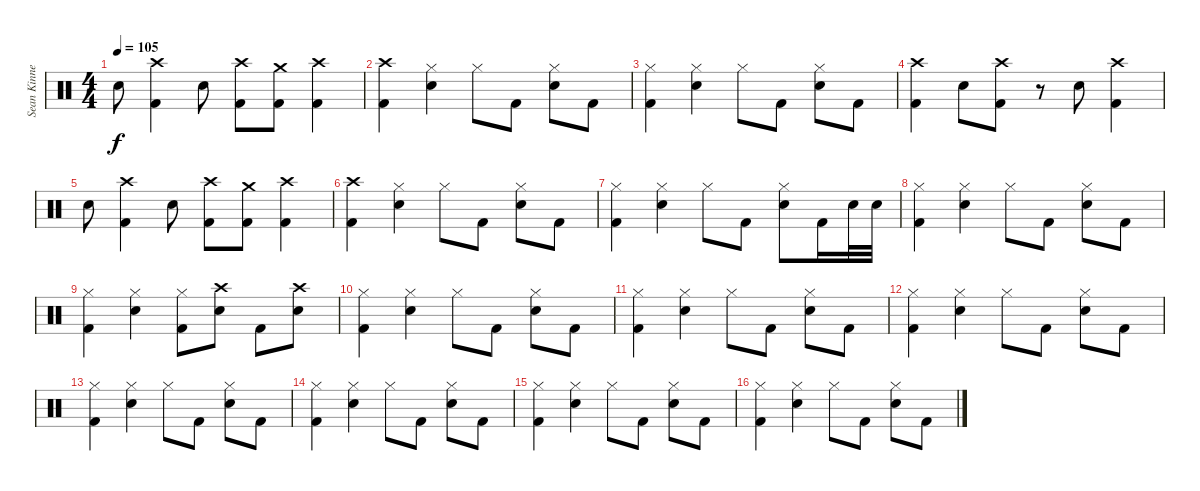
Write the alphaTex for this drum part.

\track ("Sean Kinney- Drums" "Sean Kinne") {instrument percussion}
\staff {score}
\articulation defaults
\ts (4 4)
\tempo 105
\clef neutral
\ks c "Electric Snare (hit)".8{dy f}
("Crash high (hit)" "Kick (hit) 2").4 "Electric Snare (hit)".8 ("Crash high (hit)" "Kick (hit) 2").8 ("Crash medium (hit)" "Kick (hit) 2").8 ("Crash high (hit)" "Kick (hit) 2").4 |
("Crash high (hit)" "Kick (hit) 2").4 ("Hi-Hat (closed)" "Electric Snare (hit)").4 "Hi-Hat (closed)".8 "Kick (hit) 2".8 ("Hi-Hat (closed)" "Electric Snare (hit)").8 "Kick (hit) 2".8 |
("Hi-Hat (closed)" "Kick (hit) 2").4 ("Hi-Hat (closed)" "Electric Snare (hit)").4 "Hi-Hat (closed)".8 "Kick (hit) 2".8 ("Hi-Hat (closed)" "Electric Snare (hit)").8 "Kick (hit) 2".8 |
("Crash high (hit)" "Kick (hit) 2").4 "Electric Snare (hit)".8 ("Crash high (hit)" "Kick (hit) 2").8 r.8 "Electric Snare (hit)".8 ("Crash high (hit)" "Kick (hit) 2").4 |
"Electric Snare (hit)".8 ("Crash high (hit)" "Kick (hit) 2").4 "Electric Snare (hit)".8 ("Crash high (hit)" "Kick (hit) 2").8 ("Crash medium (hit)" "Kick (hit) 2").8 ("Crash high (hit)" "Kick (hit) 2").4 |
("Crash high (hit)" "Kick (hit) 2").4 ("Hi-Hat (closed)" "Electric Snare (hit)").4 "Hi-Hat (closed)".8 "Kick (hit) 2".8 ("Hi-Hat (closed)" "Electric Snare (hit)").8 "Kick (hit) 2".8 |
("Hi-Hat (closed)" "Kick (hit) 2").4 ("Hi-Hat (closed)" "Electric Snare (hit)").4 "Hi-Hat (closed)".8 "Kick (hit) 2".8 ("Hi-Hat (closed)" "Electric Snare (hit)").8 "Kick (hit) 2".16 "Electric Snare (hit)".32 "Electric Snare (hit)".32 |
("Hi-Hat (closed)" "Kick (hit) 2").4 ("Hi-Hat (closed)" "Electric Snare (hit)").4 "Hi-Hat (closed)".8 "Kick (hit) 2".8 ("Hi-Hat (closed)" "Electric Snare (hit)").8 "Kick (hit) 2".8 |
("Hi-Hat (closed)" "Kick (hit) 2").4 ("Hi-Hat (closed)" "Electric Snare (hit)").4 ("Hi-Hat (closed)" "Kick (hit) 2").8 ("Crash high (hit)" "Electric Snare (hit)").8 "Kick (hit) 2".8 ("Crash high (hit)" "Electric Snare (hit)").8 |
("Hi-Hat (closed)" "Kick (hit) 2").4 ("Hi-Hat (closed)" "Electric Snare (hit)").4 "Hi-Hat (closed)".8 "Kick (hit) 2".8 ("Hi-Hat (closed)" "Electric Snare (hit)").8 "Kick (hit) 2".8 |
("Hi-Hat (closed)" "Kick (hit) 2").4 ("Hi-Hat (closed)" "Electric Snare (hit)").4 "Hi-Hat (closed)".8 "Kick (hit) 2".8 ("Hi-Hat (closed)" "Electric Snare (hit)").8 "Kick (hit) 2".8 |
("Hi-Hat (closed)" "Kick (hit) 2").4 ("Hi-Hat (closed)" "Electric Snare (hit)").4 "Hi-Hat (closed)".8 "Kick (hit) 2".8 ("Hi-Hat (closed)" "Electric Snare (hit)").8 "Kick (hit) 2".8 |
("Hi-Hat (closed)" "Kick (hit) 2").4 ("Hi-Hat (closed)" "Electric Snare (hit)").4 "Hi-Hat (closed)".8 "Kick (hit) 2".8 ("Hi-Hat (closed)" "Electric Snare (hit)").8 "Kick (hit) 2".8 |
("Hi-Hat (closed)" "Kick (hit) 2").4 ("Hi-Hat (closed)" "Electric Snare (hit)").4 "Hi-Hat (closed)".8 "Kick (hit) 2".8 ("Hi-Hat (closed)" "Electric Snare (hit)").8 "Kick (hit) 2".8 |
("Hi-Hat (closed)" "Kick (hit) 2").4 ("Hi-Hat (closed)" "Electric Snare (hit)").4 "Hi-Hat (closed)".8 "Kick (hit) 2".8 ("Hi-Hat (closed)" "Electric Snare (hit)").8 "Kick (hit) 2".8 |
("Hi-Hat (closed)" "Kick (hit) 2").4 ("Hi-Hat (closed)" "Electric Snare (hit)").4 "Hi-Hat (closed)".8 "Kick (hit) 2".8 ("Hi-Hat (closed)" "Electric Snare (hit)").8 "Kick (hit) 2".8
